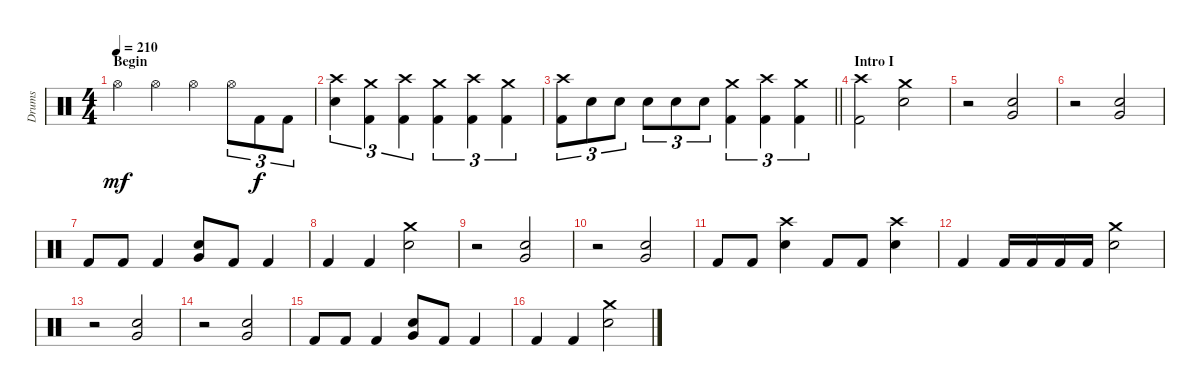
\track ("Drums" "Drums") {instrument percussion}
\staff {score}
\articulation defaults
\ts (4 4)
\section ("" "Begin")
\tempo 210
\clef neutral
\ks c "Hi-Hat (open)".4{dy mf} "Hi-Hat (open)".4 "Hi-Hat (open)".4 "Hi-Hat (open)".8{tu (3 2)} "Kick (hit) 2".8{tu (3 2) dy f} "Kick (hit) 2".8{tu (3 2)}
|
("Crash high (hit)" "Snare (hit) 2").4{tu (3 2)} ("Crash medium (hit)" "Kick (hit) 2").4{tu (3 2)} ("Crash high (hit)" "Kick (hit) 2").4{tu (3 2)} ("Crash medium (hit)" "Kick (hit) 2").4{tu (3 2)} ("Crash high (hit)" "Kick (hit) 2").4{tu (3 2)} ("Crash medium (hit)" "Kick (hit) 2").4{tu (3 2)} |
\barLineRight lightlight
("Crash high (hit)" "Kick (hit) 2").8{tu (3 2)} "Snare (hit) 2".8{tu (3 2)} "Snare (hit) 2".8{tu (3 2)} "Snare (hit) 2".8{tu (3 2)} "Snare (hit) 2".8{tu (3 2)} "Snare (hit) 2".8{tu (3 2)} ("Crash medium (hit)" "Kick (hit) 2").4{tu (3 2)} ("Crash high (hit)" "Kick (hit) 2").4{tu (3 2)} ("Crash medium (hit)" "Kick (hit) 2").4{tu (3 2)} |
\section ("" "Intro I")
("Crash high (hit)" "Kick (hit) 2").2 ("Crash medium (hit)" "Snare (hit) 2").2 |
r.2 ("Very Low Tom (hit)" "Snare (hit) 2").2 |
r.2 ("Very Low Tom (hit)" "Snare (hit) 2").2 |
"Kick (hit) 2".8 "Kick (hit) 2".8 "Kick (hit) 2".4 ("Very Low Tom (hit)" "Snare (hit) 2").8 "Kick (hit) 2".8 "Kick (hit) 2".4 |
"Kick (hit) 2".4 "Kick (hit) 2".4 ("Crash medium (hit)" "Snare (hit) 2").2 |
r.2 ("Very Low Tom (hit)" "Snare (hit) 2").2 |
r.2 ("Very Low Tom (hit)" "Snare (hit) 2").2 |
"Kick (hit) 2".8 "Kick (hit) 2".8 ("Crash high (hit)" "Snare (hit) 2").4 "Kick (hit) 2".8 "Kick (hit) 2".8 ("Crash high (hit)" "Snare (hit) 2").4 |
"Kick (hit) 2".4 "Kick (hit) 2".16 "Kick (hit) 2".16 "Kick (hit) 2".16 "Kick (hit) 2".16 ("Crash medium (hit)" "Snare (hit) 2").2 |
r.2 ("Very Low Tom (hit)" "Snare (hit) 2").2 |
r.2 ("Very Low Tom (hit)" "Snare (hit) 2").2 |
"Kick (hit) 2".8 "Kick (hit) 2".8 "Kick (hit) 2".4 ("Very Low Tom (hit)" "Snare (hit) 2").8 "Kick (hit) 2".8 "Kick (hit) 2".4 |
"Kick (hit) 2".4 "Kick (hit) 2".4 ("Crash medium (hit)" "Snare (hit) 2").2
